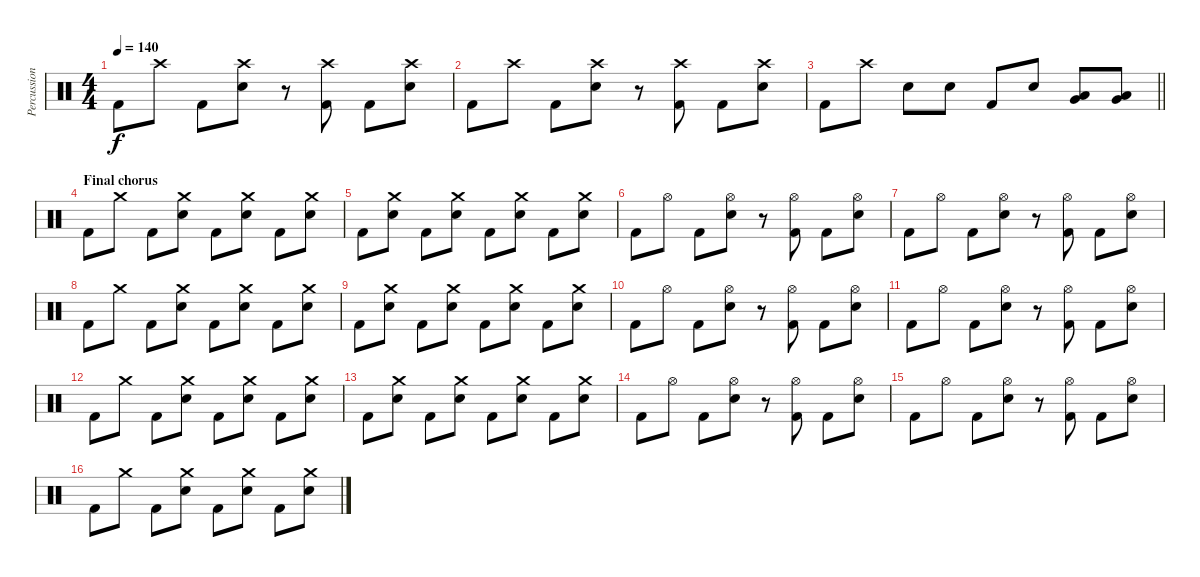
\track ("Percussion" "Percussion") {instrument percussion}
\staff {score}
\articulation defaults
\ts (4 4)
\tempo 140
\clef neutral
\ks c "Kick (hit) 2".8{dy f} "Crash high (hit)".8 "Kick (hit) 2".8
("Crash high (hit)" "Electric Snare (hit)").8 r.8 ("Crash high (hit)" "Kick (hit) 2").8 "Kick (hit) 2".8 ("Crash high (hit)" "Electric Snare (hit)").8 |
"Kick (hit) 2".8 "Crash high (hit)".8 "Kick (hit) 2".8 ("Crash high (hit)" "Electric Snare (hit)").8 r.8 ("Crash high (hit)" "Kick (hit) 2").8 "Kick (hit) 2".8 ("Crash high (hit)" "Electric Snare (hit)").8 |
\barLineRight lightlight "Kick (hit) 2".8 "Crash high (hit)".8 "Electric Snare (hit)".8 "Electric Snare (hit)".8 "Kick (hit) 2".8 "Electric Snare (hit)".8
("Low Tom (hit)" "Very Low Tom (hit)").8 ("Low Tom (hit)" "Very Low Tom (hit)").8 |
\section ("" "Final chorus")
"Kick (hit) 2".8 "Crash medium (hit)".8 "Kick (hit) 2".8 ("Crash medium (hit)" "Electric Snare (hit)").8 "Kick (hit) 2".8 ("Crash medium (hit)" "Electric Snare (hit)").8 "Kick (hit) 2".8 ("Crash medium (hit)" "Electric Snare (hit)").8 |
"Kick (hit) 2".8 ("Crash medium (hit)" "Electric Snare (hit)").8 "Kick (hit) 2".8 ("Crash medium (hit)" "Electric Snare (hit)").8 "Kick (hit) 2".8 ("Crash medium (hit)" "Electric Snare (hit)").8 "Kick (hit) 2".8 ("Crash medium (hit)" "Electric Snare (hit)").8 |
"Kick (hit) 2".8 "Hi-Hat (open)".8 "Kick (hit) 2".8 ("Hi-Hat (open)" "Electric Snare (hit)").8 r.8 ("Hi-Hat (open)" "Kick (hit) 2").8 "Kick (hit) 2".8 ("Hi-Hat (open)" "Electric Snare (hit)").8 |
"Kick (hit) 2".8 "Hi-Hat (open)".8 "Kick (hit) 2".8 ("Hi-Hat (open)" "Electric Snare (hit)").8 r.8 ("Hi-Hat (open)" "Kick (hit) 2").8 "Kick (hit) 2".8 ("Hi-Hat (open)" "Electric Snare (hit)").8 |
"Kick (hit) 2".8 "Crash medium (hit)".8 "Kick (hit) 2".8 ("Crash medium (hit)" "Electric Snare (hit)").8 "Kick (hit) 2".8 ("Crash medium (hit)" "Electric Snare (hit)").8 "Kick (hit) 2".8 ("Crash medium (hit)" "Electric Snare (hit)").8 |
"Kick (hit) 2".8 ("Crash medium (hit)" "Electric Snare (hit)").8 "Kick (hit) 2".8 ("Crash medium (hit)" "Electric Snare (hit)").8 "Kick (hit) 2".8 ("Crash medium (hit)" "Electric Snare (hit)").8 "Kick (hit) 2".8 ("Crash medium (hit)" "Electric Snare (hit)").8 |
"Kick (hit) 2".8 "Hi-Hat (open)".8 "Kick (hit) 2".8 ("Hi-Hat (open)" "Electric Snare (hit)").8 r.8 ("Hi-Hat (open)" "Kick (hit) 2").8 "Kick (hit) 2".8 ("Hi-Hat (open)" "Electric Snare (hit)").8 |
"Kick (hit) 2".8 "Hi-Hat (open)".8 "Kick (hit) 2".8 ("Hi-Hat (open)" "Electric Snare (hit)").8 r.8 ("Hi-Hat (open)" "Kick (hit) 2").8 "Kick (hit) 2".8 ("Hi-Hat (open)" "Electric Snare (hit)").8 |
"Kick (hit) 2".8 "Crash medium (hit)".8 "Kick (hit) 2".8 ("Crash medium (hit)" "Electric Snare (hit)").8 "Kick (hit) 2".8 ("Crash medium (hit)" "Electric Snare (hit)").8 "Kick (hit) 2".8 ("Crash medium (hit)" "Electric Snare (hit)").8 |
"Kick (hit) 2".8 ("Crash medium (hit)" "Electric Snare (hit)").8 "Kick (hit) 2".8 ("Crash medium (hit)" "Electric Snare (hit)").8 "Kick (hit) 2".8 ("Crash medium (hit)" "Electric Snare (hit)").8 "Kick (hit) 2".8 ("Crash medium (hit)" "Electric Snare (hit)").8 |
"Kick (hit) 2".8 "Hi-Hat (open)".8 "Kick (hit) 2".8 ("Hi-Hat (open)" "Electric Snare (hit)").8 r.8 ("Hi-Hat (open)" "Kick (hit) 2").8 "Kick (hit) 2".8 ("Hi-Hat (open)" "Electric Snare (hit)").8 |
"Kick (hit) 2".8 "Hi-Hat (open)".8 "Kick (hit) 2".8 ("Hi-Hat (open)" "Electric Snare (hit)").8 r.8 ("Hi-Hat (open)" "Kick (hit) 2").8 "Kick (hit) 2".8 ("Hi-Hat (open)" "Electric Snare (hit)").8 |
"Kick (hit) 2".8 "Crash medium (hit)".8 "Kick (hit) 2".8 ("Crash medium (hit)" "Electric Snare (hit)").8 "Kick (hit) 2".8 ("Crash medium (hit)" "Electric Snare (hit)").8 "Kick (hit) 2".8 ("Crash medium (hit)" "Electric Snare (hit)").8
